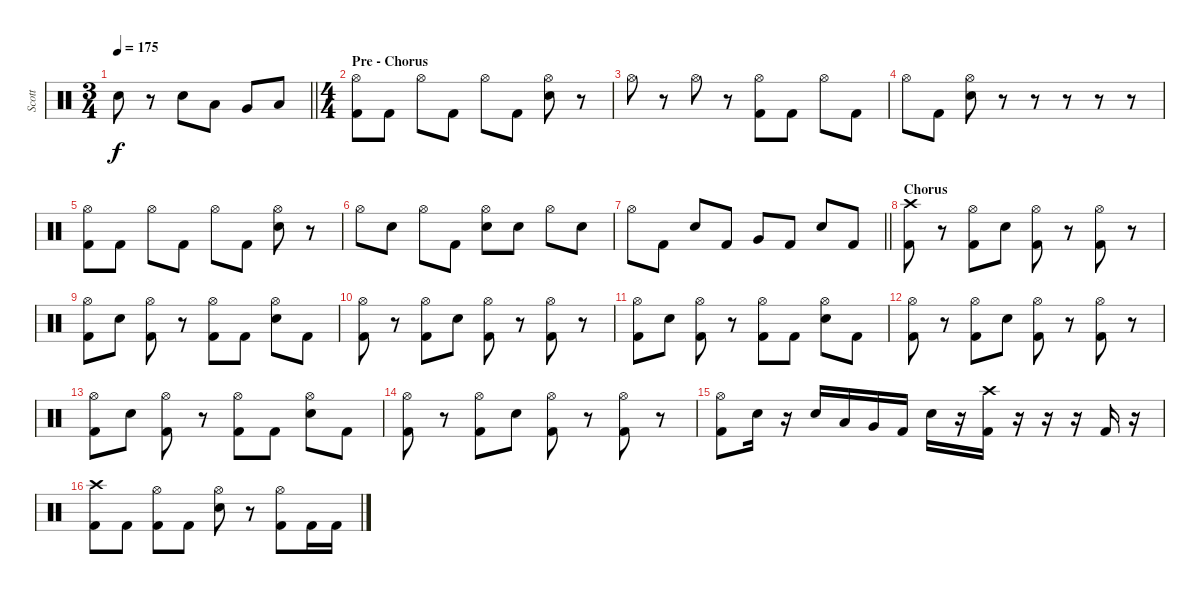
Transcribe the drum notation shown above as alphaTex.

\track ("Scott" "Scott") {instrument percussion}
\staff {score}
\articulation defaults
\ts (3 4)
\tempo 175
\clef neutral
\barLineRight lightlight
\ks c "Electric Snare (hit)".8{dy f}
r.8 "Electric Snare (hit)".8 "Low Tom (hit)".8 "Very Low Tom (hit)".8 "Low Floor Tom (hit)".8 |
\ts (4 4)
\section ("" "Pre - Chorus")
("Hi-Hat (open)" "Kick (hit) 2").8 "Kick (hit) 2".8 "Hi-Hat (open)".8 "Kick (hit) 2".8 "Hi-Hat (open)".8 "Kick (hit) 2".8 ("Hi-Hat (open)" "Electric Snare (hit)").8 r.8 |
"Hi-Hat (open)".8 r.8 "Hi-Hat (open)".8 r.8 ("Hi-Hat (open)" "Kick (hit) 2").8 "Kick (hit) 2".8 "Hi-Hat (open)".8 "Kick (hit) 2".8 |
"Hi-Hat (open)".8 "Kick (hit) 2".8 ("Hi-Hat (open)" "Electric Snare (hit)").8 r.8 r.8 r.8 r.8 r.8 |
("Hi-Hat (open)" "Kick (hit) 2").8 "Kick (hit) 2".8 "Hi-Hat (open)".8 "Kick (hit) 2".8 "Hi-Hat (open)".8 "Kick (hit) 2".8 ("Hi-Hat (open)" "Electric Snare (hit)").8 r.8 |
"Hi-Hat (open)".8 "Electric Snare (hit)".8 "Hi-Hat (open)".8 "Kick (hit) 2".8 ("Hi-Hat (open)" "Electric Snare (hit)").8 "Electric Snare (hit)".8 "Hi-Hat (open)".8 "Electric Snare (hit)".8 |
\barLineRight lightlight "Hi-Hat (open)".8 "Kick (hit) 2".8 "Electric Snare (hit)".8 "Kick (hit) 2".8 "Very Low Tom (hit)".8 "Kick (hit) 2".8 "Electric Snare (hit)".8 "Kick (hit) 2".8
|
\section ("" "Chorus")
("Crash high (hit)" "Kick (hit) 2").8 r.8 ("Hi-Hat (open)" "Kick (hit) 2").8 "Electric Snare (hit)".8 ("Hi-Hat (open)" "Kick (hit) 2").8 r.8 ("Hi-Hat (open)" "Kick (hit) 2").8 r.8 |
("Hi-Hat (open)" "Kick (hit) 2").8 "Electric Snare (hit)".8 ("Hi-Hat (open)" "Kick (hit) 2").8 r.8 ("Hi-Hat (open)" "Kick (hit) 2").8 "Kick (hit) 2".8 ("Hi-Hat (open)" "Electric Snare (hit)").8 "Kick (hit) 2".8 |
("Hi-Hat (open)" "Kick (hit) 2").8 r.8 ("Hi-Hat (open)" "Kick (hit) 2").8 "Electric Snare (hit)".8 ("Hi-Hat (open)" "Kick (hit) 2").8 r.8 ("Hi-Hat (open)" "Kick (hit) 2").8 r.8 |
("Hi-Hat (open)" "Kick (hit) 2").8 "Electric Snare (hit)".8 ("Hi-Hat (open)" "Kick (hit) 2").8 r.8 ("Hi-Hat (open)" "Kick (hit) 2").8 "Kick (hit) 2".8 ("Hi-Hat (open)" "Electric Snare (hit)").8 "Kick (hit) 2".8 |
("Hi-Hat (open)" "Kick (hit) 2").8 r.8 ("Hi-Hat (open)" "Kick (hit) 2").8 "Electric Snare (hit)".8 ("Hi-Hat (open)" "Kick (hit) 2").8 r.8 ("Hi-Hat (open)" "Kick (hit) 2").8 r.8 |
("Hi-Hat (open)" "Kick (hit) 2").8 "Electric Snare (hit)".8 ("Hi-Hat (open)" "Kick (hit) 2").8 r.8 ("Hi-Hat (open)" "Kick (hit) 2").8 "Kick (hit) 2".8 ("Hi-Hat (open)" "Electric Snare (hit)").8 "Kick (hit) 2".8 |
("Hi-Hat (open)" "Kick (hit) 2").8 r.8 ("Hi-Hat (open)" "Kick (hit) 2").8 "Electric Snare (hit)".8 ("Hi-Hat (open)" "Kick (hit) 2").8 r.8 ("Hi-Hat (open)" "Kick (hit) 2").8 r.8 |
("Hi-Hat (open)" "Kick (hit) 2").8 "Electric Snare (hit)".16 r.16 "Electric Snare (hit)".16 "Low Tom (hit)".16 "Very Low Tom (hit)".16 "Kick (hit) 2".16 "Electric Snare (hit)".16 r.16 ("Crash high (hit)" "Kick (hit) 2").16 r.16 r.16 r.16 "Kick (hit) 2".16 r.16 |
("Crash high (hit)" "Kick (hit) 2").8 "Kick (hit) 2".8 ("Hi-Hat (open)" "Kick (hit) 2").8 "Kick (hit) 2".8 ("Hi-Hat (open)" "Electric Snare (hit)").8 r.8 ("Hi-Hat (open)" "Kick (hit) 2").8 "Kick (hit) 2".16 "Kick (hit) 2".16
